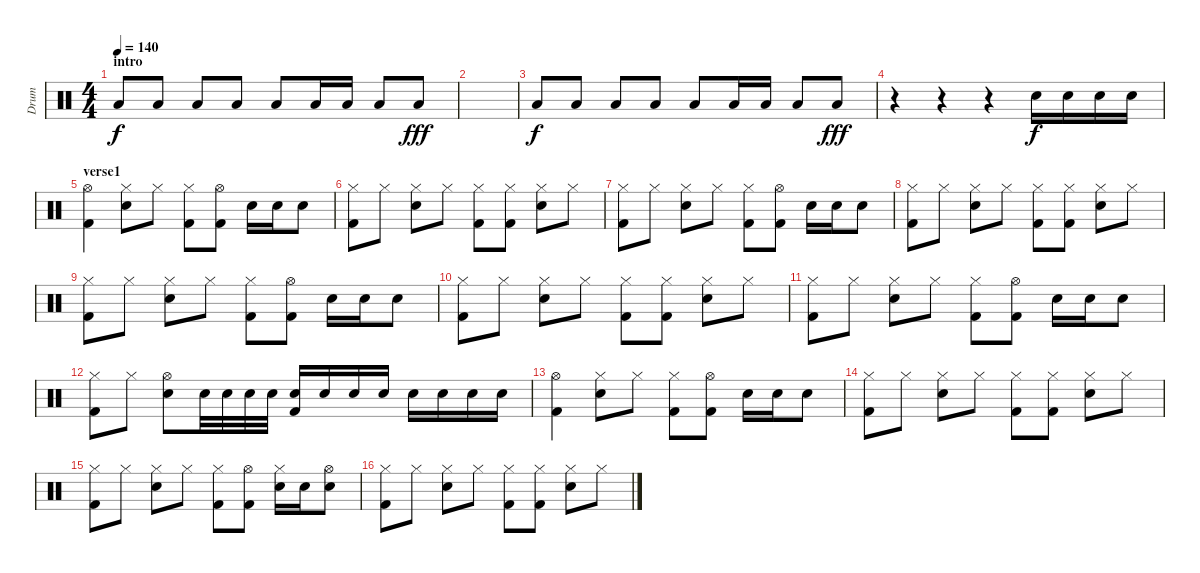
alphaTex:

\track ("Drum" "Drum") {instrument percussion}
\staff {score}
\articulation defaults
\ts (4 4)
\section ("" "intro")
\tempo 140
\clef neutral
\ks c "Low Tom (hit)".8{dy f} "Low Tom (hit)".8 "Low Tom (hit)".8 "Low Tom (hit)".8 "Low Tom (hit)".8 "Low Tom (hit)".16 "Low Tom (hit)".16 "Low Tom (hit)".8 "Low Tom (hit)".8{dy fff}
|
|
"Low Tom (hit)".8{dy f} "Low Tom (hit)".8 "Low Tom (hit)".8 "Low Tom (hit)".8 "Low Tom (hit)".8 "Low Tom (hit)".16 "Low Tom (hit)".16 "Low Tom (hit)".8 "Low Tom (hit)".8{dy fff} |
r.4 r.4 r.4 "Electric Snare (hit)".16{dy f} "Electric Snare (hit)".16 "Electric Snare (hit)".16 "Electric Snare (hit)".16 |
\section ("" "verse1")
("Hi-Hat (open)" "Kick (hit) 2").4 ("Hi-Hat (closed)" "Electric Snare (hit)").8 "Hi-Hat (closed)".8 ("Hi-Hat (closed)" "Kick (hit) 2").8 ("Hi-Hat (open)" "Kick (hit) 2").8 "Electric Snare (hit)".16 "Electric Snare (hit)".16 "Electric Snare (hit)".8 |
("Hi-Hat (closed)" "Kick (hit) 2").8 "Hi-Hat (closed)".8 ("Hi-Hat (closed)" "Electric Snare (hit)").8 "Hi-Hat (closed)".8 ("Hi-Hat (closed)" "Kick (hit) 2").8 ("Hi-Hat (closed)" "Kick (hit) 2").8 ("Hi-Hat (closed)" "Electric Snare (hit)").8 "Hi-Hat (closed)".8 |
("Hi-Hat (closed)" "Kick (hit) 2").8 "Hi-Hat (closed)".8 ("Hi-Hat (closed)" "Electric Snare (hit)").8 "Hi-Hat (closed)".8 ("Hi-Hat (closed)" "Kick (hit) 2").8 ("Hi-Hat (open)" "Kick (hit) 2").8 "Electric Snare (hit)".16 "Electric Snare (hit)".16 "Electric Snare (hit)".8 |
("Hi-Hat (closed)" "Kick (hit) 2").8 "Hi-Hat (closed)".8 ("Hi-Hat (closed)" "Electric Snare (hit)").8 "Hi-Hat (closed)".8 ("Hi-Hat (closed)" "Kick (hit) 2").8 ("Hi-Hat (closed)" "Kick (hit) 2").8 ("Hi-Hat (closed)" "Electric Snare (hit)").8 "Hi-Hat (closed)".8 |
("Hi-Hat (closed)" "Kick (hit) 2").8 "Hi-Hat (closed)".8 ("Hi-Hat (closed)" "Electric Snare (hit)").8 "Hi-Hat (closed)".8 ("Hi-Hat (closed)" "Kick (hit) 2").8 ("Hi-Hat (open)" "Kick (hit) 2").8 "Electric Snare (hit)".16 "Electric Snare (hit)".16 "Electric Snare (hit)".8 |
("Hi-Hat (closed)" "Kick (hit) 2").8 "Hi-Hat (closed)".8 ("Hi-Hat (closed)" "Electric Snare (hit)").8 "Hi-Hat (closed)".8 ("Hi-Hat (closed)" "Kick (hit) 2").8 ("Hi-Hat (closed)" "Kick (hit) 2").8 ("Hi-Hat (closed)" "Electric Snare (hit)").8 "Hi-Hat (closed)".8 |
("Hi-Hat (closed)" "Kick (hit) 2").8 "Hi-Hat (closed)".8 ("Hi-Hat (closed)" "Electric Snare (hit)").8 "Hi-Hat (closed)".8 ("Hi-Hat (closed)" "Kick (hit) 2").8 ("Hi-Hat (open)" "Kick (hit) 2").8 "Electric Snare (hit)".16 "Electric Snare (hit)".16 "Electric Snare (hit)".8 |
("Hi-Hat (closed)" "Kick (hit) 2").8 "Hi-Hat (closed)".8 ("Hi-Hat (open)" "Electric Snare (hit)").8 "Electric Snare (hit)".32 "Electric Snare (hit)".32 "Electric Snare (hit)".32 "Electric Snare (hit)".32 ("Electric Snare (hit)" "Kick (hit) 2").16 "Electric Snare (hit)".16 "Electric Snare (hit)".16 "Electric Snare (hit)".16 "Electric Snare (hit)".16 "Electric Snare (hit)".16 "Electric Snare (hit)".16 "Electric Snare (hit)".16 |
("Hi-Hat (open)" "Kick (hit) 2").4 ("Hi-Hat (closed)" "Electric Snare (hit)").8 "Hi-Hat (closed)".8 ("Hi-Hat (closed)" "Kick (hit) 2").8 ("Hi-Hat (open)" "Kick (hit) 2").8 "Electric Snare (hit)".16 "Electric Snare (hit)".16 "Electric Snare (hit)".8 |
("Hi-Hat (closed)" "Kick (hit) 2").8 "Hi-Hat (closed)".8 ("Hi-Hat (closed)" "Electric Snare (hit)").8 "Hi-Hat (closed)".8 ("Hi-Hat (closed)" "Kick (hit) 2").8 ("Hi-Hat (closed)" "Kick (hit) 2").8 ("Hi-Hat (closed)" "Electric Snare (hit)").8 "Hi-Hat (closed)".8 |
("Hi-Hat (closed)" "Kick (hit) 2").8 "Hi-Hat (closed)".8 ("Hi-Hat (closed)" "Electric Snare (hit)").8 "Hi-Hat (closed)".8 ("Hi-Hat (closed)" "Kick (hit) 2").8 ("Hi-Hat (open)" "Kick (hit) 2").8 ("Hi-Hat (closed)" "Electric Snare (hit)").16 "Electric Snare (hit)".16 ("Hi-Hat (open)" "Electric Snare (hit)").8 |
("Hi-Hat (closed)" "Kick (hit) 2").8 "Hi-Hat (closed)".8 ("Hi-Hat (closed)" "Electric Snare (hit)").8 "Hi-Hat (closed)".8 ("Hi-Hat (closed)" "Kick (hit) 2").8 ("Hi-Hat (closed)" "Kick (hit) 2").8 ("Hi-Hat (closed)" "Electric Snare (hit)").8 "Hi-Hat (closed)".8
